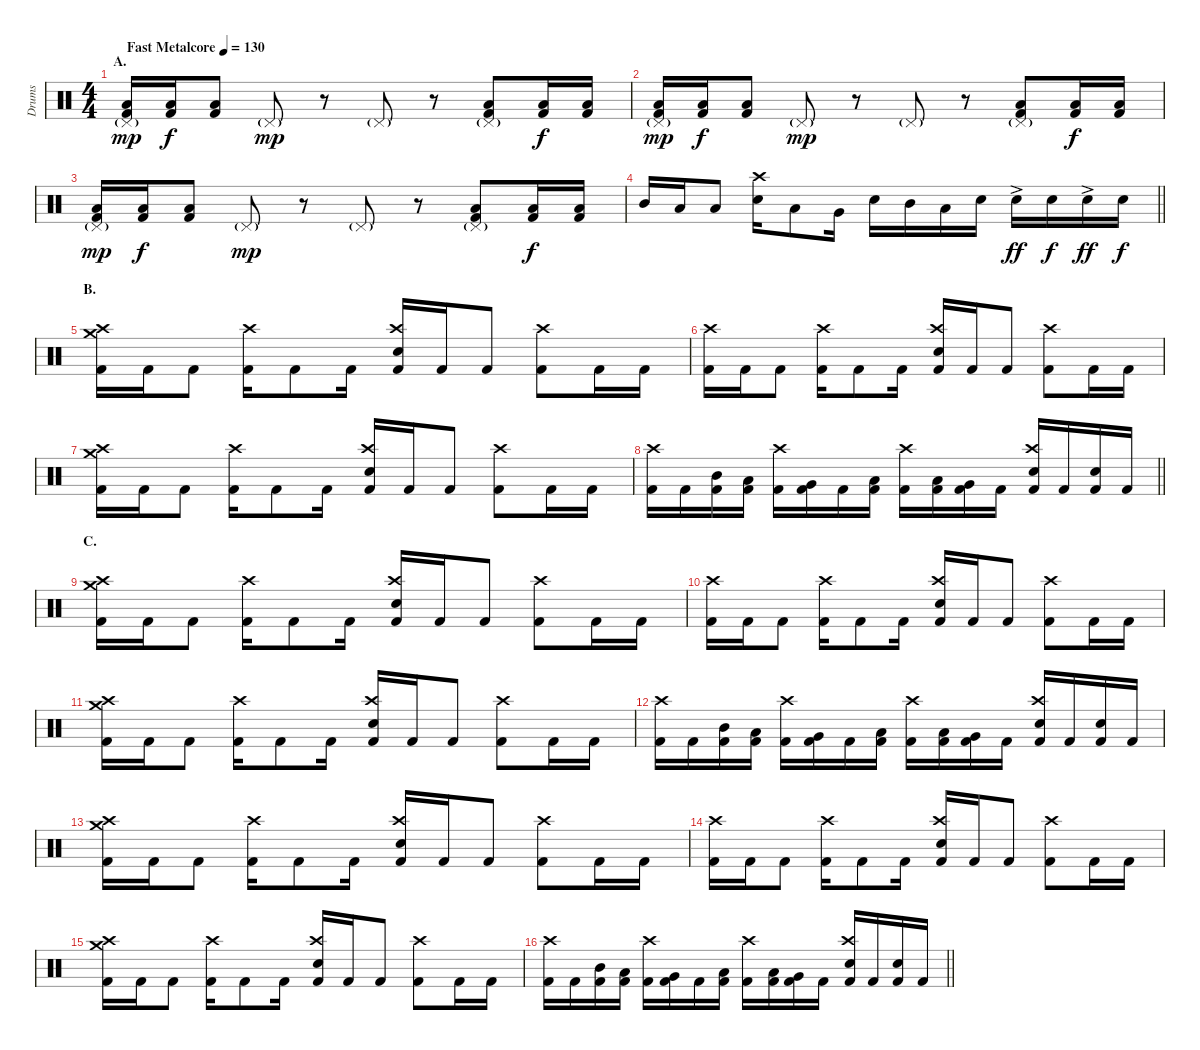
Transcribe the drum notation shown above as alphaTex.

\track ("Drums" "Drums") {instrument percussion}
\staff {score}
\articulation defaults
\ts (4 4)
\section ("" "A.")
\tempo (130 "Fast Metalcore")
\clef neutral
\ks c
("Pedal Hi-Hat (hit)"{g} "Low Floor Tom (hit)" "Kick (hit) 2").16{dy mp} ("Low Floor Tom (hit)" "Kick (hit) 2").16{dy f} ("Low Floor Tom (hit)" "Kick (hit) 2").8 "Pedal Hi-Hat (hit)"{g}.8{dy mp} r.8 "Pedal Hi-Hat (hit)"{g}.8 r.8 ("Pedal Hi-Hat (hit)"{g} "Low Floor Tom (hit)" "Kick (hit) 2").8 ("Low Floor Tom (hit)" "Kick (hit) 2").16{dy f} ("Low Floor Tom (hit)" "Kick (hit) 2").16 |
("Pedal Hi-Hat (hit)"{g} "Low Floor Tom (hit)" "Kick (hit) 2").16{dy mp} ("Low Floor Tom (hit)" "Kick (hit) 2").16{dy f} ("Low Floor Tom (hit)" "Kick (hit) 2").8 "Pedal Hi-Hat (hit)"{g}.8{dy mp} r.8 "Pedal Hi-Hat (hit)"{g}.8 r.8 ("Pedal Hi-Hat (hit)"{g} "Low Floor Tom (hit)" "Kick (hit) 2").8 ("Low Floor Tom (hit)" "Kick (hit) 2").16{dy f} ("Low Floor Tom (hit)" "Kick (hit) 2").16 |
("Pedal Hi-Hat (hit)"{g} "Low Floor Tom (hit)" "Kick (hit) 2").16{dy mp} ("Low Floor Tom (hit)" "Kick (hit) 2").16{dy f} ("Low Floor Tom (hit)" "Kick (hit) 2").8 "Pedal Hi-Hat (hit)"{g}.8{dy mp} r.8 "Pedal Hi-Hat (hit)"{g}.8 r.8 ("Pedal Hi-Hat (hit)"{g} "Low Floor Tom (hit)" "Kick (hit) 2").8 ("Low Floor Tom (hit)" "Kick (hit) 2").16{dy f} ("Low Floor Tom (hit)" "Kick (hit) 2").16 |
\barLineRight lightlight "Mid Tom (hit)".16 "Low Tom (hit)".16 "Low Floor Tom (hit)".8
("Crash high (hit)" "Electric Snare (hit)").16 "Low Tom (hit)".8 "Very Low Tom (hit)".16 "Electric Snare (hit)".16 "Mid Tom (hit)".16 "Low Tom (hit)".16 "Electric Snare (hit)".16 "Electric Snare (hit)"{ac}.16{dy ff} "Electric Snare (hit)".16{dy f} "Electric Snare (hit)"{ac}.16{dy ff} "Electric Snare (hit)".16{dy f} |
\section ("" "B.")
("Crash medium (hit)" "Crash high (hit)" "Kick (hit) 2").16 "Kick (hit) 2".16 "Kick (hit) 2".8 ("Crash high (hit)" "Kick (hit) 2").16 "Kick (hit) 2".8 "Kick (hit) 2".16 ("Crash high (hit)" "Electric Snare (hit)" "Kick (hit) 2").16 "Kick (hit) 2".16 "Kick (hit) 2".8 ("Crash high (hit)" "Kick (hit) 2").8 "Kick (hit) 2".16 "Kick (hit) 2".16 |
("Crash high (hit)" "Kick (hit) 2").16 "Kick (hit) 2".16 "Kick (hit) 2".8 ("Crash high (hit)" "Kick (hit) 2").16 "Kick (hit) 2".8 "Kick (hit) 2".16 ("Crash high (hit)" "Electric Snare (hit)" "Kick (hit) 2").16 "Kick (hit) 2".16 "Kick (hit) 2".8 ("Crash high (hit)" "Kick (hit) 2").8 "Kick (hit) 2".16 "Kick (hit) 2".16 |
("Crash medium (hit)" "Crash high (hit)" "Kick (hit) 2").16 "Kick (hit) 2".16 "Kick (hit) 2".8 ("Crash high (hit)" "Kick (hit) 2").16 "Kick (hit) 2".8 "Kick (hit) 2".16 ("Crash high (hit)" "Electric Snare (hit)" "Kick (hit) 2").16 "Kick (hit) 2".16 "Kick (hit) 2".8 ("Crash high (hit)" "Kick (hit) 2").8 "Kick (hit) 2".16 "Kick (hit) 2".16 |
\barLineRight lightlight
("Crash high (hit)" "Kick (hit) 2").16 "Kick (hit) 2".16 ("Mid Tom (hit)" "Kick (hit) 2").16 ("Low Tom (hit)" "Kick (hit) 2").16 ("Crash high (hit)" "Kick (hit) 2").16 ("Very Low Tom (hit)" "Kick (hit) 2").16 "Kick (hit) 2".16 ("Low Tom (hit)" "Kick (hit) 2").16 ("Crash high (hit)" "Kick (hit) 2").16 ("Low Tom (hit)" "Kick (hit) 2").16 ("Very Low Tom (hit)" "Kick (hit) 2").16 "Kick (hit) 2".16 ("Crash high (hit)" "Electric Snare (hit)" "Kick (hit) 2").16 "Kick (hit) 2".16 ("Electric Snare (hit)" "Kick (hit) 2").16 "Kick (hit) 2".16 |
\section ("" "C.")
("Crash medium (hit)" "Crash high (hit)" "Kick (hit) 2").16 "Kick (hit) 2".16 "Kick (hit) 2".8 ("Crash high (hit)" "Kick (hit) 2").16 "Kick (hit) 2".8 "Kick (hit) 2".16 ("Crash high (hit)" "Electric Snare (hit)" "Kick (hit) 2").16 "Kick (hit) 2".16 "Kick (hit) 2".8 ("Crash high (hit)" "Kick (hit) 2").8 "Kick (hit) 2".16 "Kick (hit) 2".16 |
("Crash high (hit)" "Kick (hit) 2").16 "Kick (hit) 2".16 "Kick (hit) 2".8 ("Crash high (hit)" "Kick (hit) 2").16 "Kick (hit) 2".8 "Kick (hit) 2".16 ("Crash high (hit)" "Electric Snare (hit)" "Kick (hit) 2").16 "Kick (hit) 2".16 "Kick (hit) 2".8 ("Crash high (hit)" "Kick (hit) 2").8 "Kick (hit) 2".16 "Kick (hit) 2".16 |
("Crash medium (hit)" "Crash high (hit)" "Kick (hit) 2").16 "Kick (hit) 2".16 "Kick (hit) 2".8 ("Crash high (hit)" "Kick (hit) 2").16 "Kick (hit) 2".8 "Kick (hit) 2".16 ("Crash high (hit)" "Electric Snare (hit)" "Kick (hit) 2").16 "Kick (hit) 2".16 "Kick (hit) 2".8 ("Crash high (hit)" "Kick (hit) 2").8 "Kick (hit) 2".16 "Kick (hit) 2".16 |
("Crash high (hit)" "Kick (hit) 2").16 "Kick (hit) 2".16 ("Mid Tom (hit)" "Kick (hit) 2").16 ("Low Tom (hit)" "Kick (hit) 2").16 ("Crash high (hit)" "Kick (hit) 2").16 ("Very Low Tom (hit)" "Kick (hit) 2").16 "Kick (hit) 2".16 ("Low Tom (hit)" "Kick (hit) 2").16 ("Crash high (hit)" "Kick (hit) 2").16 ("Low Tom (hit)" "Kick (hit) 2").16 ("Very Low Tom (hit)" "Kick (hit) 2").16 "Kick (hit) 2".16 ("Crash high (hit)" "Electric Snare (hit)" "Kick (hit) 2").16 "Kick (hit) 2".16 ("Electric Snare (hit)" "Kick (hit) 2").16 "Kick (hit) 2".16 |
("Crash medium (hit)" "Crash high (hit)" "Kick (hit) 2").16 "Kick (hit) 2".16 "Kick (hit) 2".8 ("Crash high (hit)" "Kick (hit) 2").16 "Kick (hit) 2".8 "Kick (hit) 2".16 ("Crash high (hit)" "Electric Snare (hit)" "Kick (hit) 2").16 "Kick (hit) 2".16 "Kick (hit) 2".8 ("Crash high (hit)" "Kick (hit) 2").8 "Kick (hit) 2".16 "Kick (hit) 2".16 |
("Crash high (hit)" "Kick (hit) 2").16 "Kick (hit) 2".16 "Kick (hit) 2".8 ("Crash high (hit)" "Kick (hit) 2").16 "Kick (hit) 2".8 "Kick (hit) 2".16 ("Crash high (hit)" "Electric Snare (hit)" "Kick (hit) 2").16 "Kick (hit) 2".16 "Kick (hit) 2".8 ("Crash high (hit)" "Kick (hit) 2").8 "Kick (hit) 2".16 "Kick (hit) 2".16 |
("Crash medium (hit)" "Crash high (hit)" "Kick (hit) 2").16 "Kick (hit) 2".16 "Kick (hit) 2".8 ("Crash high (hit)" "Kick (hit) 2").16 "Kick (hit) 2".8 "Kick (hit) 2".16 ("Crash high (hit)" "Electric Snare (hit)" "Kick (hit) 2").16 "Kick (hit) 2".16 "Kick (hit) 2".8 ("Crash high (hit)" "Kick (hit) 2").8 "Kick (hit) 2".16 "Kick (hit) 2".16 |
\barLineRight lightlight
("Crash high (hit)" "Kick (hit) 2").16 "Kick (hit) 2".16 ("Mid Tom (hit)" "Kick (hit) 2").16 ("Low Tom (hit)" "Kick (hit) 2").16 ("Crash high (hit)" "Kick (hit) 2").16 ("Very Low Tom (hit)" "Kick (hit) 2").16 "Kick (hit) 2".16 ("Low Tom (hit)" "Kick (hit) 2").16 ("Crash high (hit)" "Kick (hit) 2").16 ("Low Tom (hit)" "Kick (hit) 2").16 ("Very Low Tom (hit)" "Kick (hit) 2").16 "Kick (hit) 2".16 ("Crash high (hit)" "Electric Snare (hit)" "Kick (hit) 2").16 "Kick (hit) 2".16 ("Electric Snare (hit)" "Kick (hit) 2").16 "Kick (hit) 2".16
